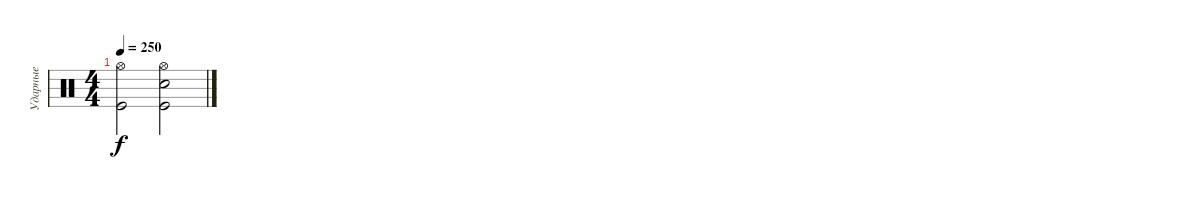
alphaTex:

\track ("Ударные" "Ударные") {instrument percussion}
\staff {score}
\articulation defaults
\ts (4 4)
\tempo 250
\clef neutral
\ks c
("Hi-Hat (open)" "Kick (hit)").2{dy f} ("Hi-Hat (open)" "Kick (hit)" "Snare (hit) 2").2
